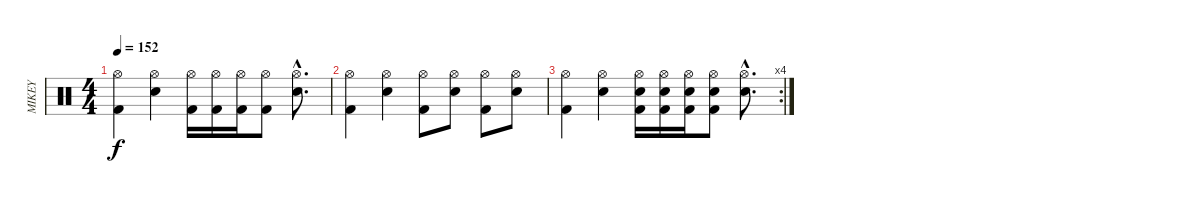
\track ("MIKEY" "MIKEY") {instrument percussion}
\staff {score}
\articulation defaults
\ts (4 4)
\tempo 152
\clef neutral
\ks c
("Hi-Hat (open)" "Kick (hit) 2").4{dy f} ("Hi-Hat (open)" "Electric Snare (hit)").4 ("Hi-Hat (open)" "Kick (hit) 2").16 ("Hi-Hat (open)" "Kick (hit) 2").16 ("Hi-Hat (open)" "Kick (hit) 2").16 ("Hi-Hat (open)" "Kick (hit) 2").8 ("Hi-Hat (open)"{hac} "Electric Snare (hit)"{hac}).8{d} |
("Hi-Hat (open)" "Kick (hit) 2").4 ("Hi-Hat (open)" "Electric Snare (hit)").4 ("Hi-Hat (open)" "Kick (hit) 2").8 ("Hi-Hat (open)" "Electric Snare (hit)").8 ("Hi-Hat (open)" "Kick (hit) 2").8 ("Hi-Hat (open)" "Electric Snare (hit)").8 |
\rc 4
("Hi-Hat (open)" "Kick (hit) 2").4 ("Hi-Hat (open)" "Electric Snare (hit)").4 ("Kick (hit) 2" "Hi-Hat (open)" "Electric Snare (hit)").16 ("Kick (hit) 2" "Hi-Hat (open)" "Electric Snare (hit)").16 ("Kick (hit) 2" "Hi-Hat (open)" "Electric Snare (hit)").16 ("Kick (hit) 2" "Hi-Hat (open)" "Electric Snare (hit)").8 ("Hi-Hat (open)"{hac} "Electric Snare (hit)"{hac}).8{d}
